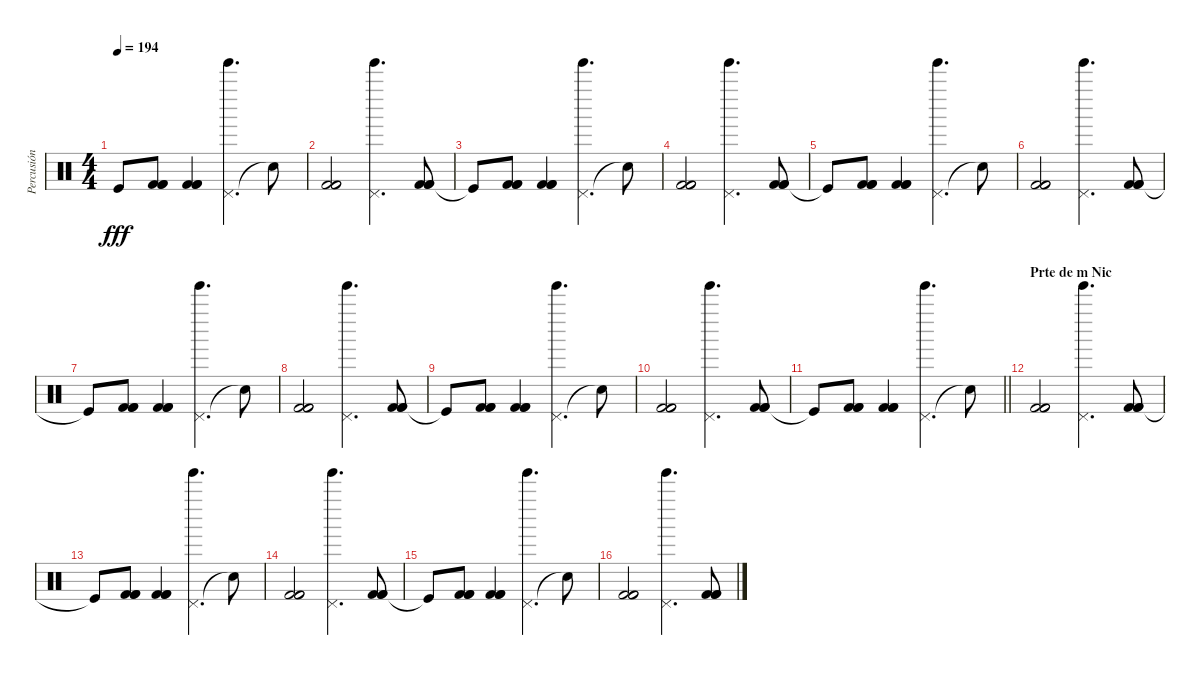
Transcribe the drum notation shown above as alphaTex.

\track ("Percusión" "Percusión") {instrument percussion}
\staff {score}
\articulation defaults
\ts (4 4)
\tempo 194
\clef neutral
\ks c "Kick (hit)"{t}.8{dy fff}
("Kick (hit) 2" "Kick (hit) 2" "Kick (hit) 2").8 ("Kick (hit) 2" "Kick (hit) 2" "Kick (hit) 2").4 ("Pedal Hi-Hat (hit)" "Tinkle Bell (hit)").4{d} "Snare (hit)"{t}.8 |
("Kick (hit) 2" "Kick (hit) 2" "Kick (hit) 2").2 ("Pedal Hi-Hat (hit)" "Tinkle Bell (hit)").4{d} ("Kick (hit) 2" "Kick (hit) 2" "Kick (hit) 2").8 |
"Kick (hit)"{t}.8 ("Kick (hit) 2" "Kick (hit) 2" "Kick (hit) 2").8 ("Kick (hit) 2" "Kick (hit) 2" "Kick (hit) 2").4 ("Pedal Hi-Hat (hit)" "Tinkle Bell (hit)").4{d} "Snare (hit)"{t}.8 |
("Kick (hit) 2" "Kick (hit) 2" "Kick (hit) 2").2 ("Pedal Hi-Hat (hit)" "Tinkle Bell (hit)").4{d} ("Kick (hit) 2" "Kick (hit) 2" "Kick (hit) 2").8 |
"Kick (hit)"{t}.8 ("Kick (hit) 2" "Kick (hit) 2" "Kick (hit) 2").8 ("Kick (hit) 2" "Kick (hit) 2" "Kick (hit) 2").4 ("Pedal Hi-Hat (hit)" "Tinkle Bell (hit)").4{d} "Snare (hit)"{t}.8 |
("Kick (hit) 2" "Kick (hit) 2" "Kick (hit) 2").2 ("Pedal Hi-Hat (hit)" "Tinkle Bell (hit)").4{d} ("Kick (hit) 2" "Kick (hit) 2" "Kick (hit) 2").8 |
"Kick (hit)"{t}.8 ("Kick (hit) 2" "Kick (hit) 2" "Kick (hit) 2").8 ("Kick (hit) 2" "Kick (hit) 2" "Kick (hit) 2").4 ("Pedal Hi-Hat (hit)" "Tinkle Bell (hit)").4{d} "Snare (hit)"{t}.8 |
("Kick (hit) 2" "Kick (hit) 2" "Kick (hit) 2").2 ("Pedal Hi-Hat (hit)" "Tinkle Bell (hit)").4{d} ("Kick (hit) 2" "Kick (hit) 2" "Kick (hit) 2").8 |
"Kick (hit)"{t}.8 ("Kick (hit) 2" "Kick (hit) 2" "Kick (hit) 2").8 ("Kick (hit) 2" "Kick (hit) 2" "Kick (hit) 2").4 ("Pedal Hi-Hat (hit)" "Tinkle Bell (hit)").4{d} "Snare (hit)"{t}.8 |
("Kick (hit) 2" "Kick (hit) 2" "Kick (hit) 2").2 ("Pedal Hi-Hat (hit)" "Tinkle Bell (hit)").4{d} ("Kick (hit) 2" "Kick (hit) 2" "Kick (hit) 2").8 |
\barLineRight lightlight "Kick (hit)"{t}.8
("Kick (hit) 2" "Kick (hit) 2" "Kick (hit) 2").8 ("Kick (hit) 2" "Kick (hit) 2" "Kick (hit) 2").4 ("Pedal Hi-Hat (hit)" "Tinkle Bell (hit)").4{d} "Snare (hit)"{t}.8 |
\section ("" "Prte de m Nic")
("Kick (hit) 2" "Kick (hit) 2" "Kick (hit) 2").2 ("Pedal Hi-Hat (hit)" "Tinkle Bell (hit)").4{d} ("Kick (hit) 2" "Kick (hit) 2" "Kick (hit) 2").8 |
"Kick (hit)"{t}.8 ("Kick (hit) 2" "Kick (hit) 2" "Kick (hit) 2").8 ("Kick (hit) 2" "Kick (hit) 2" "Kick (hit) 2").4 ("Pedal Hi-Hat (hit)" "Tinkle Bell (hit)").4{d} "Snare (hit)"{t}.8 |
("Kick (hit) 2" "Kick (hit) 2" "Kick (hit) 2").2 ("Pedal Hi-Hat (hit)" "Tinkle Bell (hit)").4{d} ("Kick (hit) 2" "Kick (hit) 2" "Kick (hit) 2").8 |
"Kick (hit)"{t}.8 ("Kick (hit) 2" "Kick (hit) 2" "Kick (hit) 2").8 ("Kick (hit) 2" "Kick (hit) 2" "Kick (hit) 2").4 ("Pedal Hi-Hat (hit)" "Tinkle Bell (hit)").4{d} "Snare (hit)"{t}.8 |
("Kick (hit) 2" "Kick (hit) 2" "Kick (hit) 2").2 ("Pedal Hi-Hat (hit)" "Tinkle Bell (hit)").4{d} ("Kick (hit) 2" "Kick (hit) 2" "Kick (hit) 2").8
